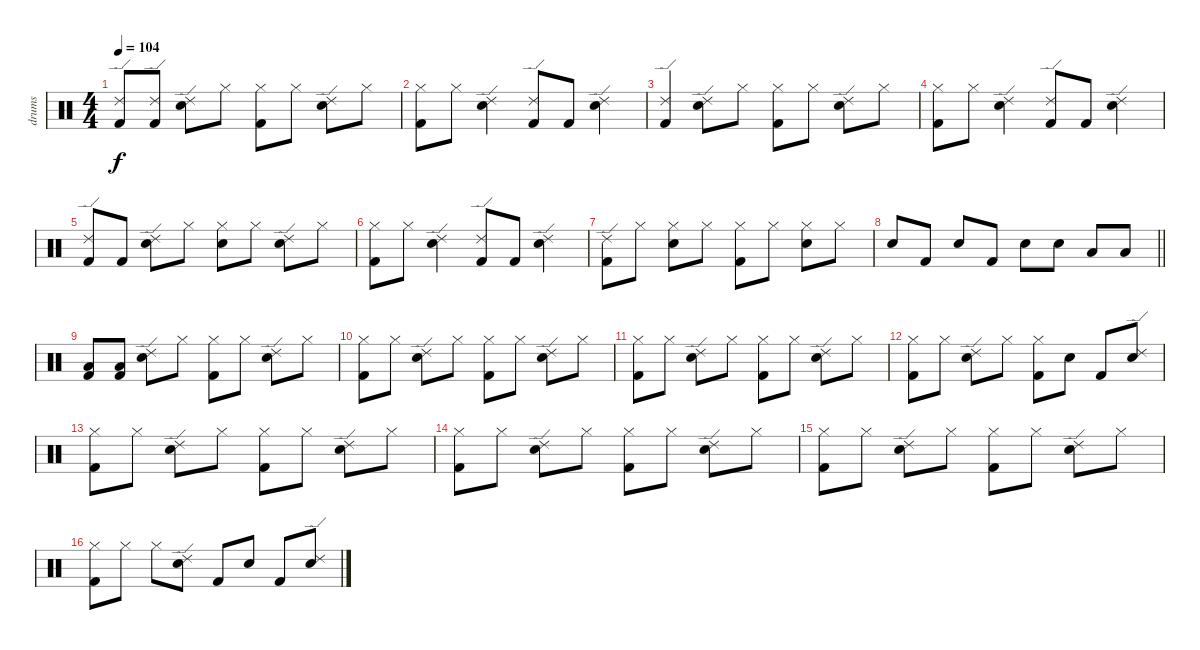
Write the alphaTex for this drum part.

\track ("drums" "drums") {instrument percussion}
\staff {score}
\articulation defaults
\ts (4 4)
\tempo 104
\clef neutral
\ks c
("Kick (hit) 2" "Ride (edge) 2").8{dy f} ("Kick (hit) 2" "Ride (edge) 2").8 ("Snare (hit) 2" "Ride (edge) 2").8 "Hi-Hat (closed)".8 ("Hi-Hat (closed)" "Kick (hit) 2").8 "Hi-Hat (closed)".8 ("Snare (hit) 2" "Ride (edge) 2").8 "Hi-Hat (closed)".8 |
("Hi-Hat (closed)" "Kick (hit) 2").8 "Hi-Hat (closed)".8 ("Snare (hit) 2" "Ride (edge) 2").4 ("Kick (hit) 2" "Ride (edge) 2").8 "Kick (hit) 2".8 ("Snare (hit) 2" "Ride (edge) 2").4 |
("Kick (hit) 2" "Ride (edge) 2").4 ("Snare (hit) 2" "Ride (edge) 2").8 "Hi-Hat (closed)".8 ("Hi-Hat (closed)" "Kick (hit) 2").8 "Hi-Hat (closed)".8 ("Snare (hit) 2" "Ride (edge) 2").8 "Hi-Hat (closed)".8 |
("Hi-Hat (closed)" "Kick (hit) 2").8 "Hi-Hat (closed)".8 ("Snare (hit) 2" "Ride (edge) 2").4 ("Kick (hit) 2" "Ride (edge) 2").8 "Kick (hit) 2".8 ("Snare (hit) 2" "Ride (edge) 2").4 |
("Kick (hit) 2" "Ride (edge) 2").8 "Kick (hit) 2".8 ("Snare (hit) 2" "Ride (edge) 2").8 "Hi-Hat (closed)".8 ("Hi-Hat (closed)" "Snare (hit) 2").8 "Hi-Hat (closed)".8 ("Snare (hit) 2" "Ride (edge) 2").8 "Hi-Hat (closed)".8 |
("Hi-Hat (closed)" "Kick (hit) 2").8 "Hi-Hat (closed)".8 ("Snare (hit) 2" "Ride (edge) 2").4 ("Kick (hit) 2" "Ride (edge) 2").8 "Kick (hit) 2".8 ("Snare (hit) 2" "Ride (edge) 2").4 |
("Kick (hit) 2" "Ride (edge) 2").8 "Hi-Hat (closed)".8 ("Hi-Hat (closed)" "Snare (hit) 2").8 "Hi-Hat (closed)".8 ("Hi-Hat (closed)" "Kick (hit) 2").8 "Hi-Hat (closed)".8 ("Hi-Hat (closed)" "Snare (hit) 2").8 "Hi-Hat (closed)".8 |
\barLineRight lightlight "Snare (hit) 2".8 "Kick (hit) 2".8 "Snare (hit) 2".8 "Kick (hit) 2".8 "Snare (hit) 2".8 "Snare (hit) 2".8 "Low Tom (hit)".8 "Low Tom (hit)".8
|
("Kick (hit) 2" "Low Floor Tom (hit)").8 ("Kick (hit) 2" "Low Floor Tom (hit)").8 ("Snare (hit) 2" "Ride (edge) 2").8 "Hi-Hat (closed)".8 ("Hi-Hat (closed)" "Kick (hit) 2").8 "Hi-Hat (closed)".8 ("Snare (hit) 2" "Ride (edge) 2").8 "Hi-Hat (closed)".8 |
("Hi-Hat (closed)" "Kick (hit) 2").8 "Hi-Hat (closed)".8 ("Snare (hit) 2" "Ride (edge) 2").8 "Hi-Hat (closed)".8 ("Hi-Hat (closed)" "Kick (hit) 2").8 "Hi-Hat (closed)".8 ("Snare (hit) 2" "Ride (edge) 2").8 "Hi-Hat (closed)".8 |
("Hi-Hat (closed)" "Kick (hit) 2").8 "Hi-Hat (closed)".8 ("Snare (hit) 2" "Ride (edge) 2").8 "Hi-Hat (closed)".8 ("Hi-Hat (closed)" "Kick (hit) 2").8 "Hi-Hat (closed)".8 ("Snare (hit) 2" "Ride (edge) 2").8 "Hi-Hat (closed)".8 |
("Hi-Hat (closed)" "Kick (hit) 2").8 "Hi-Hat (closed)".8 ("Snare (hit) 2" "Ride (edge) 2").8 "Hi-Hat (closed)".8 ("Hi-Hat (closed)" "Kick (hit) 2").8 "Snare (hit) 2".8 "Kick (hit) 2".8 ("Snare (hit) 2" "Ride (edge) 2").8 |
("Hi-Hat (closed)" "Kick (hit) 2").8 "Hi-Hat (closed)".8 ("Snare (hit) 2" "Ride (edge) 2").8 "Hi-Hat (closed)".8 ("Hi-Hat (closed)" "Kick (hit) 2").8 "Hi-Hat (closed)".8 ("Snare (hit) 2" "Ride (edge) 2").8 "Hi-Hat (closed)".8 |
("Hi-Hat (closed)" "Kick (hit) 2").8 "Hi-Hat (closed)".8 ("Snare (hit) 2" "Ride (edge) 2").8 "Hi-Hat (closed)".8 ("Hi-Hat (closed)" "Kick (hit) 2").8 "Hi-Hat (closed)".8 ("Snare (hit) 2" "Ride (edge) 2").8 "Hi-Hat (closed)".8 |
("Hi-Hat (closed)" "Kick (hit) 2").8 "Hi-Hat (closed)".8 ("Snare (hit) 2" "Ride (edge) 2").8 "Hi-Hat (closed)".8 ("Hi-Hat (closed)" "Kick (hit) 2").8 "Hi-Hat (closed)".8 ("Snare (hit) 2" "Ride (edge) 2").8 "Hi-Hat (closed)".8 |
("Hi-Hat (closed)" "Kick (hit) 2").8 "Hi-Hat (closed)".8 "Hi-Hat (closed)".8 ("Snare (hit) 2" "Ride (edge) 2").8 "Kick (hit) 2".8 "Snare (hit) 2".8 "Kick (hit) 2".8 ("Snare (hit) 2" "Ride (edge) 2").8
